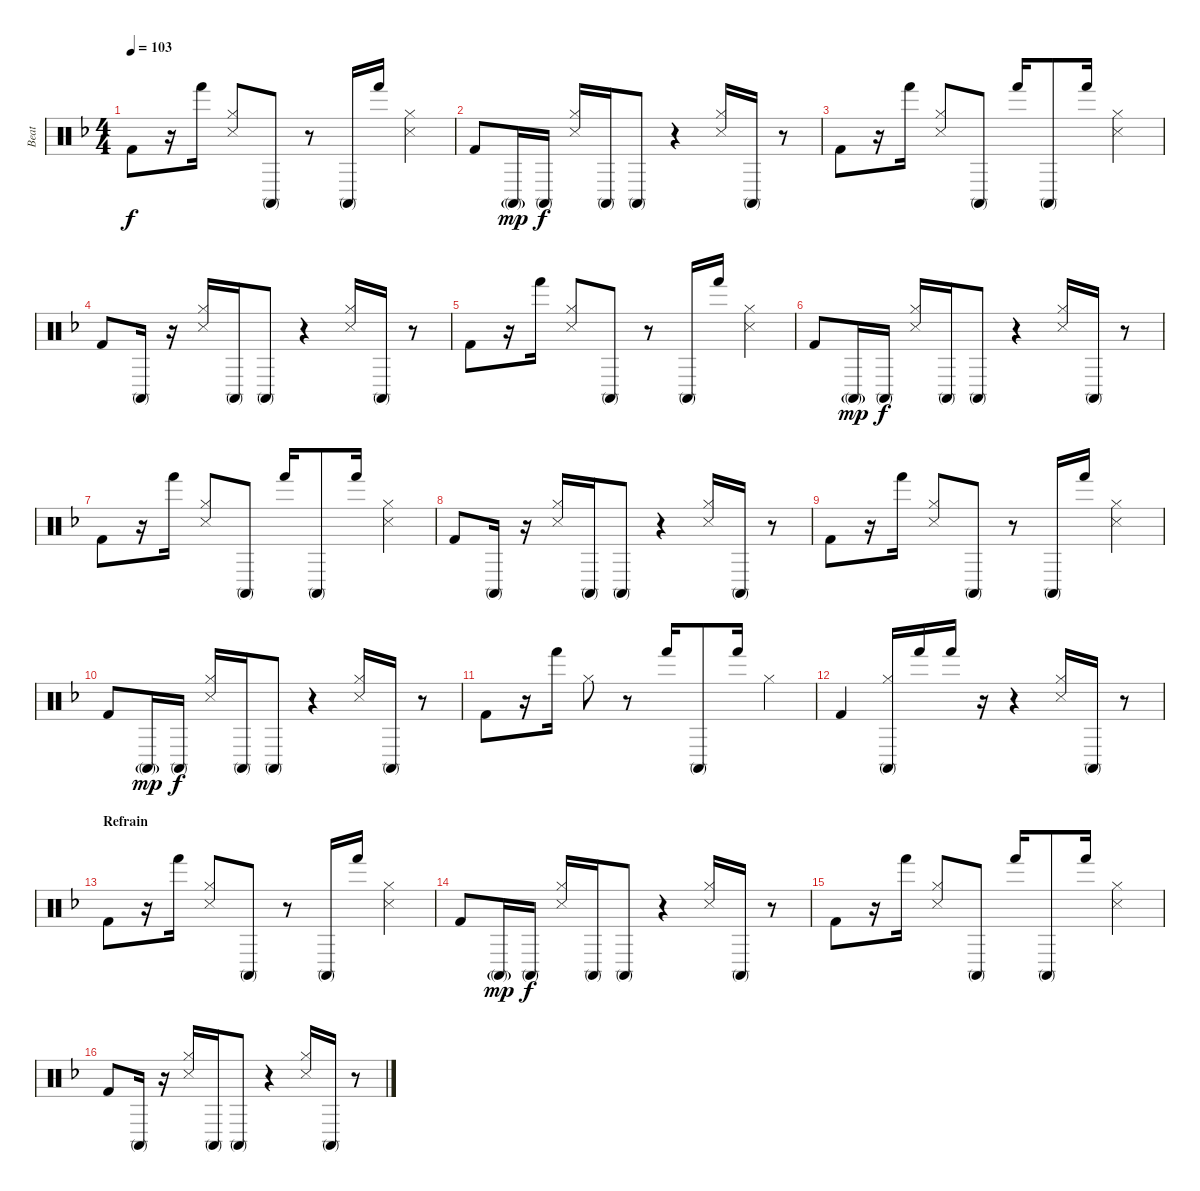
\track ("Beat" "Beat") {instrument percussion}
\staff {score}
\articulation defaults
\ts (4 4)
\tempo 103
\clef neutral
\ks dminor "Kick (hit) 2".8{dy f}
r.16 "Hand (hit)".16 ("Hi-Hat (closed)" "Snare (side stick) 3").8 "Conga high (mute)".8 r.8 "Conga high (mute)".16 "Hand (hit)".16 ("Hi-Hat (closed)" "Snare (side stick) 3").4 |
"Kick (hit) 2".8 "Conga high (mute)"{g}.16{dy mp} "Conga high (mute)".16{dy f} ("Hi-Hat (closed)" "Snare (side stick) 3").16 "Conga high (mute)".16 "Conga high (mute)".8 r.4 ("Hi-Hat (closed)" "Snare (side stick) 3").16 "Conga high (mute)".16 r.8 |
"Kick (hit) 2".8 r.16 "Hand (hit)".16 ("Hi-Hat (closed)" "Snare (side stick) 3").8 "Conga high (mute)".8 "Hand (hit)".16 "Conga high (mute)".8 "Hand (hit)".16 ("Hi-Hat (closed)" "Snare (side stick) 3").4 |
"Kick (hit) 2".8 "Conga high (mute)".16 r.16 ("Hi-Hat (closed)" "Snare (side stick) 3").16 "Conga high (mute)".16 "Conga high (mute)".8 r.4 ("Hi-Hat (closed)" "Snare (side stick) 3").16 "Conga high (mute)".16 r.8 |
"Kick (hit) 2".8 r.16 "Hand (hit)".16 ("Hi-Hat (closed)" "Snare (side stick) 3").8 "Conga high (mute)".8 r.8 "Conga high (mute)".16 "Hand (hit)".16 ("Hi-Hat (closed)" "Snare (side stick) 3").4 |
"Kick (hit) 2".8 "Conga high (mute)"{g}.16{dy mp} "Conga high (mute)".16{dy f} ("Hi-Hat (closed)" "Snare (side stick) 3").16 "Conga high (mute)".16 "Conga high (mute)".8 r.4 ("Hi-Hat (closed)" "Snare (side stick) 3").16 "Conga high (mute)".16 r.8 |
"Kick (hit) 2".8 r.16 "Hand (hit)".16 ("Hi-Hat (closed)" "Snare (side stick) 3").8 "Conga high (mute)".8 "Hand (hit)".16 "Conga high (mute)".8 "Hand (hit)".16 ("Hi-Hat (closed)" "Snare (side stick) 3").4 |
"Kick (hit) 2".8 "Conga high (mute)".16 r.16 ("Hi-Hat (closed)" "Snare (side stick) 3").16 "Conga high (mute)".16 "Conga high (mute)".8 r.4 ("Hi-Hat (closed)" "Snare (side stick) 3").16 "Conga high (mute)".16 r.8 |
"Kick (hit) 2".8 r.16 "Hand (hit)".16 ("Hi-Hat (closed)" "Snare (side stick) 3").8 "Conga high (mute)".8 r.8 "Conga high (mute)".16 "Hand (hit)".16 ("Hi-Hat (closed)" "Snare (side stick) 3").4 |
"Kick (hit) 2".8 "Conga high (mute)"{g}.16{dy mp} "Conga high (mute)".16{dy f} ("Hi-Hat (closed)" "Snare (side stick) 3").16 "Conga high (mute)".16 "Conga high (mute)".8 r.4 ("Hi-Hat (closed)" "Snare (side stick) 3").16 "Conga high (mute)".16 r.8 |
"Kick (hit) 2".8 r.16 "Hand (hit)".16 "Hi-Hat (closed)".8 r.8 "Hand (hit)".16 "Conga high (mute)".8 "Hand (hit)".16 "Hi-Hat (closed)".4 |
"Kick (hit) 2".4 ("Hi-Hat (closed)" "Conga high (mute)").16 "Hand (hit)".16 "Hand (hit)".16 r.16 r.4 ("Hi-Hat (closed)" "Snare (side stick) 3").16 "Conga high (mute)".16 r.8 |
\section ("" "Refrain")
"Kick (hit) 2".8 r.16 "Hand (hit)".16 ("Hi-Hat (closed)" "Snare (side stick) 3").8 "Conga high (mute)".8 r.8 "Conga high (mute)".16 "Hand (hit)".16 ("Hi-Hat (closed)" "Snare (side stick) 3").4 |
"Kick (hit) 2".8 "Conga high (mute)"{g}.16{dy mp} "Conga high (mute)".16{dy f} ("Hi-Hat (closed)" "Snare (side stick) 3").16 "Conga high (mute)".16 "Conga high (mute)".8 r.4 ("Hi-Hat (closed)" "Snare (side stick) 3").16 "Conga high (mute)".16 r.8 |
"Kick (hit) 2".8 r.16 "Hand (hit)".16 ("Hi-Hat (closed)" "Snare (side stick) 3").8 "Conga high (mute)".8 "Hand (hit)".16 "Conga high (mute)".8 "Hand (hit)".16 ("Hi-Hat (closed)" "Snare (side stick) 3").4 |
"Kick (hit) 2".8 "Conga high (mute)".16 r.16 ("Hi-Hat (closed)" "Snare (side stick) 3").16 "Conga high (mute)".16 "Conga high (mute)".8 r.4 ("Hi-Hat (closed)" "Snare (side stick) 3").16 "Conga high (mute)".16 r.8
